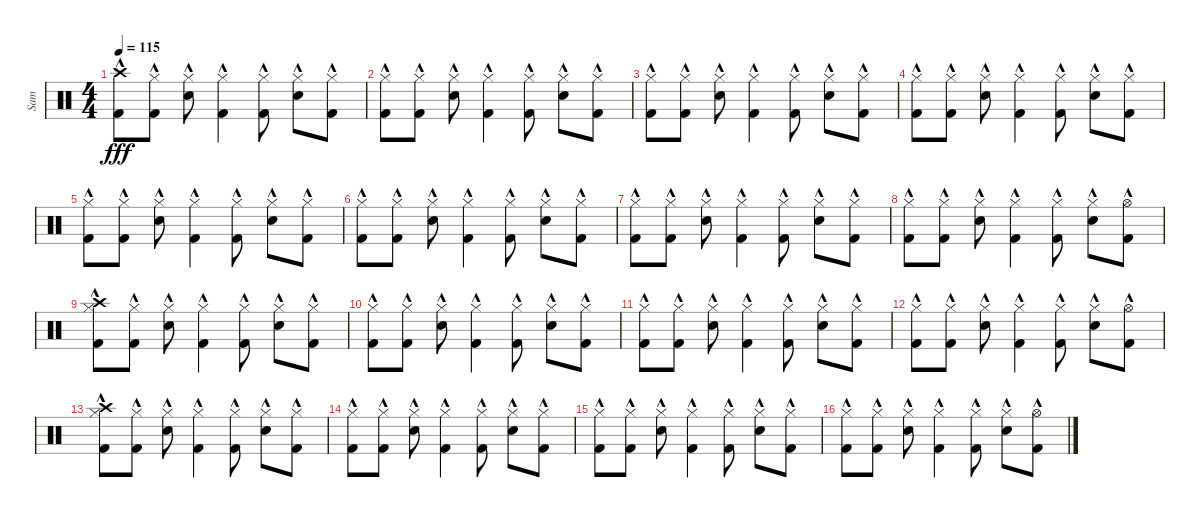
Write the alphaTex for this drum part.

\track ("Sam" "Sam") {instrument percussion}
\staff {score}
\articulation defaults
\ts (4 4)
\tempo 115
\clef neutral
\ks c
("Crash high (hit)" "Kick (hit) 2"{hac}).8{dy fff} ("Hi-Hat (closed)" "Kick (hit) 2"{hac}).8 ("Hi-Hat (closed)" "Electric Snare (hit)"{hac}).8 ("Hi-Hat (closed)" "Kick (hit) 2"{hac}).4 ("Hi-Hat (closed)" "Kick (hit) 2"{hac}).8 ("Hi-Hat (closed)" "Electric Snare (hit)"{hac}).8 ("Hi-Hat (closed)" "Kick (hit) 2"{hac}).8 |
("Hi-Hat (closed)" "Kick (hit) 2"{hac}).8 ("Hi-Hat (closed)" "Kick (hit) 2"{hac}).8 ("Hi-Hat (closed)" "Electric Snare (hit)"{hac}).8 ("Hi-Hat (closed)" "Kick (hit) 2"{hac}).4 ("Hi-Hat (closed)" "Kick (hit) 2"{hac}).8 ("Hi-Hat (closed)" "Electric Snare (hit)"{hac}).8 ("Hi-Hat (closed)" "Kick (hit) 2"{hac}).8 |
("Hi-Hat (closed)" "Kick (hit) 2"{hac}).8 ("Hi-Hat (closed)" "Kick (hit) 2"{hac}).8 ("Hi-Hat (closed)" "Electric Snare (hit)"{hac}).8 ("Hi-Hat (closed)" "Kick (hit) 2"{hac}).4 ("Hi-Hat (closed)" "Kick (hit) 2"{hac}).8 ("Hi-Hat (closed)" "Electric Snare (hit)"{hac}).8 ("Hi-Hat (closed)" "Kick (hit) 2"{hac}).8 |
("Hi-Hat (closed)" "Kick (hit) 2"{hac}).8 ("Hi-Hat (closed)" "Kick (hit) 2"{hac}).8 ("Hi-Hat (closed)" "Electric Snare (hit)"{hac}).8 ("Hi-Hat (closed)" "Kick (hit) 2"{hac}).4 ("Hi-Hat (closed)" "Kick (hit) 2"{hac}).8 ("Hi-Hat (closed)" "Electric Snare (hit)"{hac}).8 ("Hi-Hat (closed)" "Kick (hit) 2"{hac}).8 |
("Hi-Hat (closed)" "Kick (hit) 2"{hac}).8 ("Hi-Hat (closed)" "Kick (hit) 2"{hac}).8 ("Hi-Hat (closed)" "Electric Snare (hit)"{hac}).8 ("Hi-Hat (closed)" "Kick (hit) 2"{hac}).4 ("Hi-Hat (closed)" "Kick (hit) 2"{hac}).8 ("Hi-Hat (closed)" "Electric Snare (hit)"{hac}).8 ("Hi-Hat (closed)" "Kick (hit) 2"{hac}).8 |
("Hi-Hat (closed)" "Kick (hit) 2"{hac}).8 ("Hi-Hat (closed)" "Kick (hit) 2"{hac}).8 ("Hi-Hat (closed)" "Electric Snare (hit)"{hac}).8 ("Hi-Hat (closed)" "Kick (hit) 2"{hac}).4 ("Hi-Hat (closed)" "Kick (hit) 2"{hac}).8 ("Hi-Hat (closed)" "Electric Snare (hit)"{hac}).8 ("Hi-Hat (closed)" "Kick (hit) 2"{hac}).8 |
("Hi-Hat (closed)" "Kick (hit) 2"{hac}).8 ("Hi-Hat (closed)" "Kick (hit) 2"{hac}).8 ("Hi-Hat (closed)" "Electric Snare (hit)"{hac}).8 ("Hi-Hat (closed)" "Kick (hit) 2"{hac}).4 ("Hi-Hat (closed)" "Kick (hit) 2"{hac}).8 ("Hi-Hat (closed)" "Electric Snare (hit)"{hac}).8 ("Hi-Hat (closed)" "Kick (hit) 2"{hac}).8 |
("Hi-Hat (closed)" "Kick (hit) 2"{hac}).8 ("Hi-Hat (closed)" "Kick (hit) 2"{hac}).8 ("Hi-Hat (closed)" "Electric Snare (hit)"{hac}).8 ("Hi-Hat (closed)" "Kick (hit) 2"{hac}).4 ("Hi-Hat (closed)" "Kick (hit) 2"{hac}).8 ("Hi-Hat (closed)" "Electric Snare (hit)"{hac}).8 ("Hi-Hat (open)" "Kick (hit) 2"{hac}).8 |
("Crash high (hit)" "Hi-Hat (closed)" "Kick (hit) 2"{hac}).8 ("Hi-Hat (closed)" "Kick (hit) 2"{hac}).8 ("Hi-Hat (closed)" "Electric Snare (hit)"{hac}).8 ("Hi-Hat (closed)" "Kick (hit) 2"{hac}).4 ("Hi-Hat (closed)" "Kick (hit) 2"{hac}).8 ("Hi-Hat (closed)" "Electric Snare (hit)"{hac}).8 ("Hi-Hat (closed)" "Kick (hit) 2"{hac}).8 |
("Hi-Hat (closed)" "Kick (hit) 2"{hac}).8 ("Hi-Hat (closed)" "Kick (hit) 2"{hac}).8 ("Hi-Hat (closed)" "Electric Snare (hit)"{hac}).8 ("Hi-Hat (closed)" "Kick (hit) 2"{hac}).4 ("Hi-Hat (closed)" "Kick (hit) 2"{hac}).8 ("Hi-Hat (closed)" "Electric Snare (hit)"{hac}).8 ("Hi-Hat (closed)" "Kick (hit) 2"{hac}).8 |
("Hi-Hat (closed)" "Kick (hit) 2"{hac}).8 ("Hi-Hat (closed)" "Kick (hit) 2"{hac}).8 ("Hi-Hat (closed)" "Electric Snare (hit)"{hac}).8 ("Hi-Hat (closed)" "Kick (hit) 2"{hac}).4 ("Hi-Hat (closed)" "Kick (hit) 2"{hac}).8 ("Hi-Hat (closed)" "Electric Snare (hit)"{hac}).8 ("Hi-Hat (closed)" "Kick (hit) 2"{hac}).8 |
("Hi-Hat (closed)" "Kick (hit) 2"{hac}).8 ("Hi-Hat (closed)" "Kick (hit) 2"{hac}).8 ("Hi-Hat (closed)" "Electric Snare (hit)"{hac}).8 ("Hi-Hat (closed)" "Kick (hit) 2"{hac}).4 ("Hi-Hat (closed)" "Kick (hit) 2"{hac}).8 ("Hi-Hat (closed)" "Electric Snare (hit)"{hac}).8 ("Hi-Hat (open)" "Kick (hit) 2"{hac}).8 |
("Crash high (hit)" "Hi-Hat (closed)" "Kick (hit) 2"{hac}).8 ("Hi-Hat (closed)" "Kick (hit) 2"{hac}).8 ("Hi-Hat (closed)" "Electric Snare (hit)"{hac}).8 ("Hi-Hat (closed)" "Kick (hit) 2"{hac}).4 ("Hi-Hat (closed)" "Kick (hit) 2"{hac}).8 ("Hi-Hat (closed)" "Electric Snare (hit)"{hac}).8 ("Hi-Hat (closed)" "Kick (hit) 2"{hac}).8 |
("Hi-Hat (closed)" "Kick (hit) 2"{hac}).8 ("Hi-Hat (closed)" "Kick (hit) 2"{hac}).8 ("Hi-Hat (closed)" "Electric Snare (hit)"{hac}).8 ("Hi-Hat (closed)" "Kick (hit) 2"{hac}).4 ("Hi-Hat (closed)" "Kick (hit) 2"{hac}).8 ("Hi-Hat (closed)" "Electric Snare (hit)"{hac}).8 ("Hi-Hat (closed)" "Kick (hit) 2"{hac}).8 |
("Hi-Hat (closed)" "Kick (hit) 2"{hac}).8 ("Hi-Hat (closed)" "Kick (hit) 2"{hac}).8 ("Hi-Hat (closed)" "Electric Snare (hit)"{hac}).8 ("Hi-Hat (closed)" "Kick (hit) 2"{hac}).4 ("Hi-Hat (closed)" "Kick (hit) 2"{hac}).8 ("Hi-Hat (closed)" "Electric Snare (hit)"{hac}).8 ("Hi-Hat (closed)" "Kick (hit) 2"{hac}).8 |
("Hi-Hat (closed)" "Kick (hit) 2"{hac}).8 ("Hi-Hat (closed)" "Kick (hit) 2"{hac}).8 ("Hi-Hat (closed)" "Electric Snare (hit)"{hac}).8 ("Hi-Hat (closed)" "Kick (hit) 2"{hac}).4 ("Hi-Hat (closed)" "Kick (hit) 2"{hac}).8 ("Hi-Hat (closed)" "Electric Snare (hit)"{hac}).8 ("Hi-Hat (open)" "Kick (hit) 2"{hac}).8
